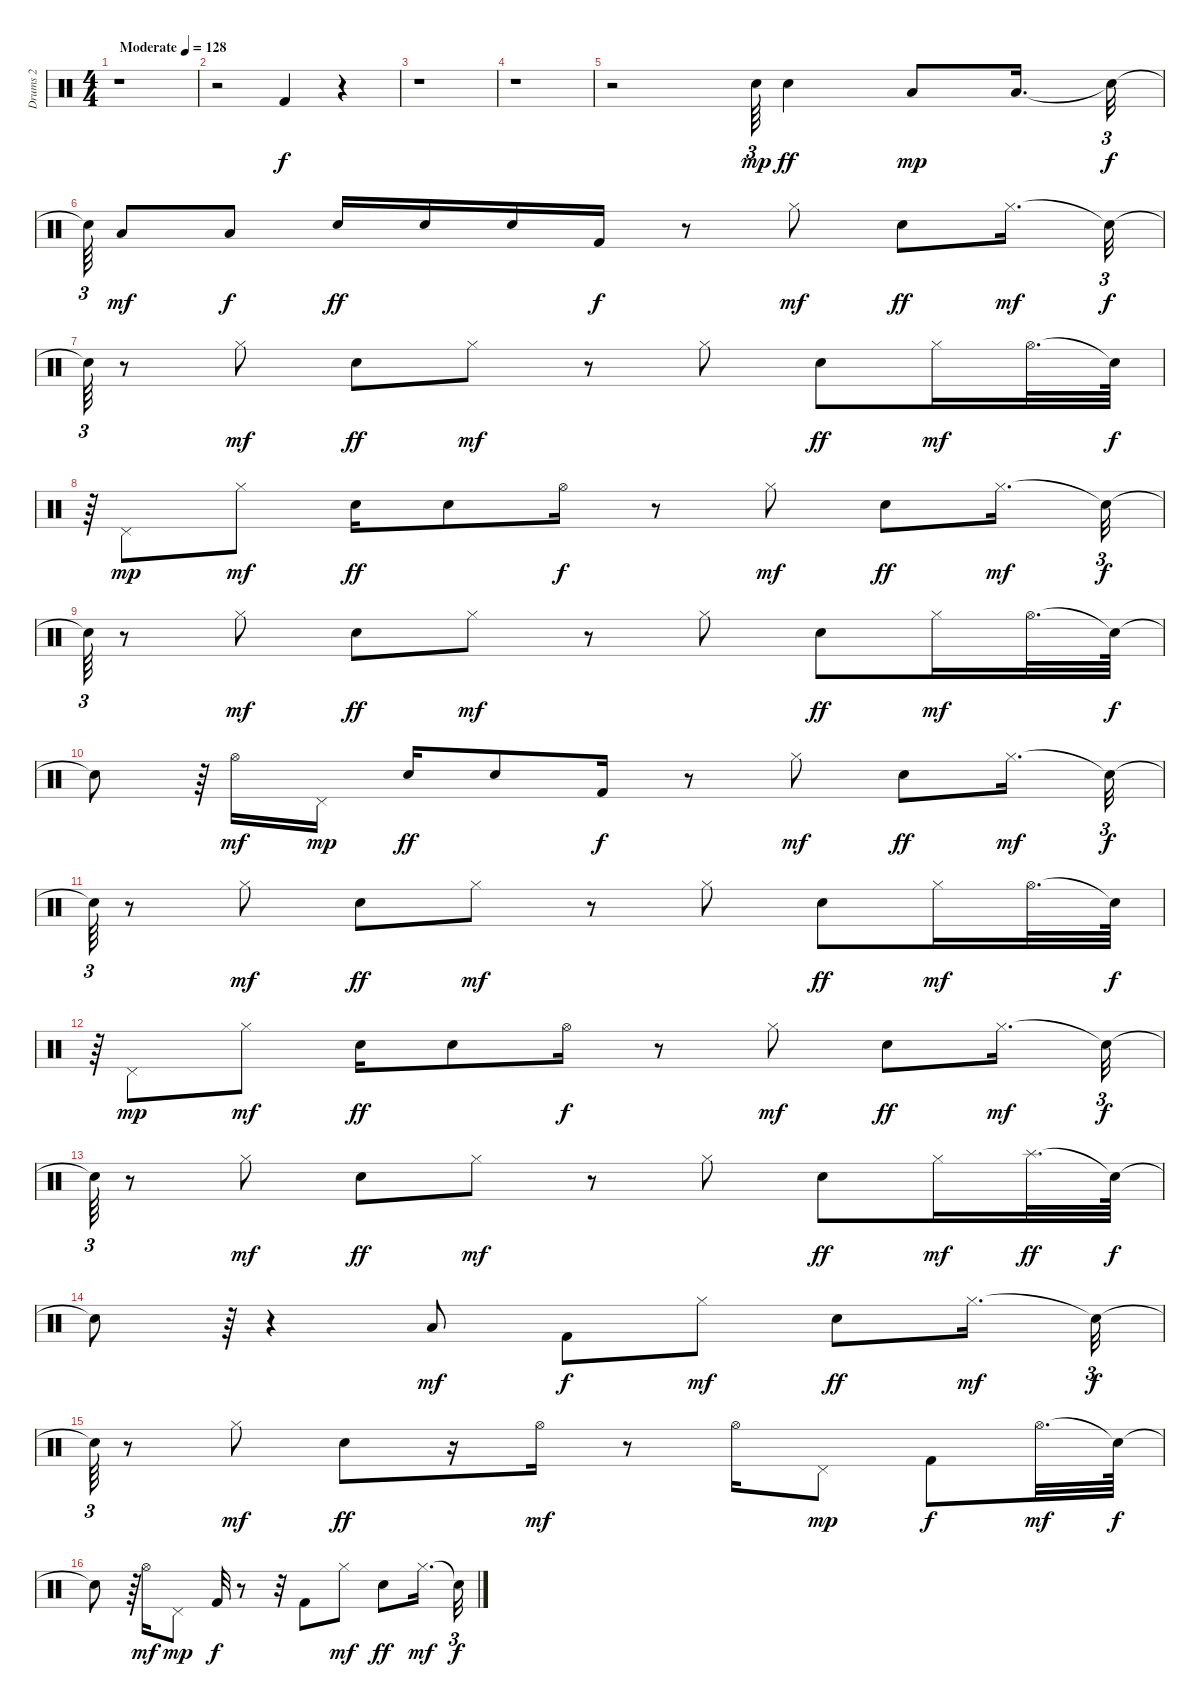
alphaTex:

\track ("Drums 2                             " "Drums 2   ") {instrument percussion}
\staff {score}
\articulation defaults
\ts (4 4)
\tempo (128 "Moderate")
\clef neutral
\ks c
r.1{dy f} |
r.2 "Kick (hit) 2".4 r.4 |
r.1 |
r.1 |
r.2 "Snare (hit) 2".64{tu (3 2) dy mp} "Snare (hit) 2".4{dy ff} "Low Floor Tom (hit)".8{dy mp} "Low Floor Tom (hit)".16{d} "Snare (hit)"{t}.32{tu (3 2) dy f} |
"Snare (hit)"{t}.64{tu (3 2)} "Low Floor Tom (hit)".8{dy mf} "Low Floor Tom (hit)".8{dy f} "Snare (hit) 2".16{dy ff} "Snare (hit) 2".16 "Snare (hit) 2".16 "Kick (hit) 2".16{dy f} r.8 "Hi-Hat (closed)".8{dy mf} "Snare (hit) 2".8{dy ff} "Hi-Hat (closed)".16{d dy mf} "Snare (hit)"{t}.32{tu (3 2) dy f} |
"Snare (hit)"{t}.64{tu (3 2)} r.8 "Hi-Hat (closed)".8{dy mf} "Snare (hit) 2".8{dy ff} "Hi-Hat (closed)".8{dy mf} r.8 "Hi-Hat (closed)".8 "Snare (hit) 2".8{dy ff} "Hi-Hat (closed)".16{dy mf} "Hi-Hat (open)".32{d} "Snare (hit)"{t}.64{dy f} |
r.64{tu (3 2)} "Pedal Hi-Hat (hit)".8{dy mp} "Hi-Hat (closed)".8{dy mf} "Snare (hit) 2".16{dy ff} "Snare (hit) 2".8 "Hi-Hat (open)".16{dy f} r.8 "Hi-Hat (closed)".8{dy mf} "Snare (hit) 2".8{dy ff} "Hi-Hat (closed)".16{d dy mf} "Snare (hit)"{t}.32{tu (3 2) dy f} |
"Snare (hit)"{t}.64{tu (3 2)} r.8 "Hi-Hat (closed)".8{dy mf} "Snare (hit) 2".8{dy ff} "Hi-Hat (closed)".8{dy mf} r.8 "Hi-Hat (closed)".8 "Snare (hit) 2".8{dy ff} "Hi-Hat (closed)".16{dy mf} "Hi-Hat (open)".32{d} "Snare (hit)"{t}.64{dy f} |
"Snare (hit)"{t}.8 r.64{tu (3 2)} "Hi-Hat (open)".16{dy mf} "Pedal Hi-Hat (hit)".16{dy mp} "Snare (hit) 2".16{dy ff} "Snare (hit) 2".8 "Kick (hit) 2".16{dy f} r.8 "Hi-Hat (closed)".8{dy mf} "Snare (hit) 2".8{dy ff} "Hi-Hat (closed)".16{d dy mf} "Snare (hit)"{t}.32{tu (3 2) dy f} |
"Snare (hit)"{t}.64{tu (3 2)} r.8 "Hi-Hat (closed)".8{dy mf} "Snare (hit) 2".8{dy ff} "Hi-Hat (closed)".8{dy mf} r.8 "Hi-Hat (closed)".8 "Snare (hit) 2".8{dy ff} "Hi-Hat (closed)".16{dy mf} "Hi-Hat (open)".32{d} "Snare (hit)"{t}.64{dy f} |
r.64{tu (3 2)} "Pedal Hi-Hat (hit)".8{dy mp} "Hi-Hat (closed)".8{dy mf} "Snare (hit) 2".16{dy ff} "Snare (hit) 2".8 "Hi-Hat (open)".16{dy f} r.8 "Hi-Hat (closed)".8{dy mf} "Snare (hit) 2".8{dy ff} "Hi-Hat (closed)".16{d dy mf} "Snare (hit)"{t}.32{tu (3 2) dy f} |
"Snare (hit)"{t}.64{tu (3 2)} r.8 "Hi-Hat (closed)".8{dy mf} "Snare (hit) 2".8{dy ff} "Hi-Hat (closed)".8{dy mf} r.8 "Hi-Hat (closed)".8 "Snare (hit) 2".8{dy ff} "Hi-Hat (closed)".16{dy mf} "Splash (hit)".32{d dy ff} "Snare (hit)"{t}.64{dy f} |
"Snare (hit)"{t}.8 r.64{tu (3 2)} r.4 "Low Tom (hit)".8{dy mf} "Kick (hit) 2".8{dy f} "Hi-Hat (closed)".8{dy mf} "Snare (hit) 2".8{dy ff} "Hi-Hat (closed)".16{d dy mf} "Snare (hit)"{t}.32{tu (3 2) dy f} |
"Snare (hit)"{t}.64{tu (3 2)} r.8 "Hi-Hat (closed)".8{dy mf} "Snare (hit) 2".8{dy ff} r.16 "Hi-Hat (open)".16{dy mf} r.8 "Hi-Hat (open)".16 "Pedal Hi-Hat (hit)".8{dy mp} "Kick (hit) 2".8{dy f} "Hi-Hat (open)".32{d dy mf} "Snare (hit)"{t}.64{dy f} |
"Snare (hit)"{t}.8 r.64{tu (3 2)} "Hi-Hat (open)".16{dy mf} "Pedal Hi-Hat (hit)".8{dy mp} "Kick (hit) 2".32{dy f} r.8 r.32 "Kick (hit) 2".8 "Hi-Hat (closed)".8{dy mf} "Snare (hit) 2".8{dy ff} "Hi-Hat (closed)".16{d dy mf} "Snare (hit)"{t}.32{tu (3 2) dy f}
